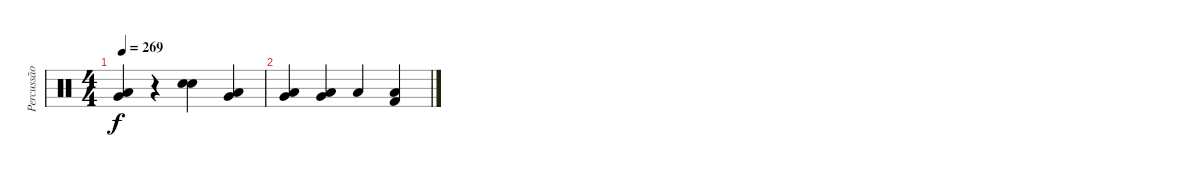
\track ("Percussão" "Percussão") {instrument percussion}
\staff {score}
\articulation defaults
\ts (4 4)
\tempo 269
\clef neutral
\ks c
("Very Low Tom (hit)" "Low Floor Tom (hit)").4{dy f} r.4 ("Snare (hit) 2" "Electric Snare (hit)").4 ("Very Low Tom (hit)" "Low Floor Tom (hit)").4 |
("Very Low Tom (hit)" "Low Floor Tom (hit)").4 ("Very Low Tom (hit)" "Low Floor Tom (hit)").4 "Low Floor Tom (hit)".4 ("Low Floor Tom (hit)" "Kick (hit) 2").4
